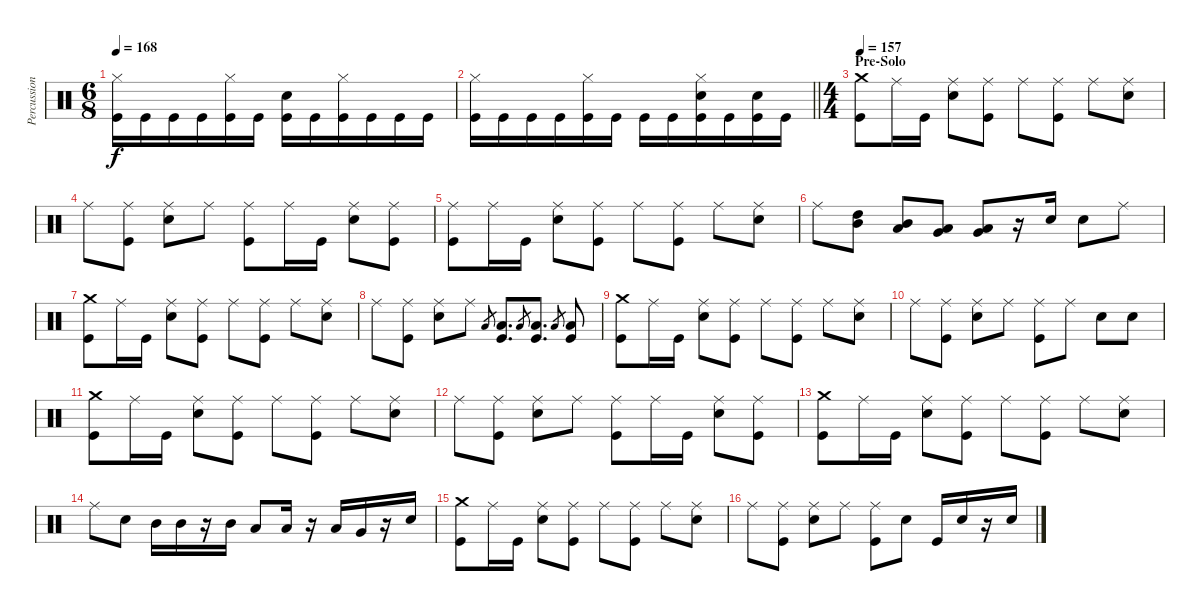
\track ("Percussion" "Percussion") {instrument percussion}
\staff {score}
\articulation defaults
\ts (6 8)
\tempo 168
\clef neutral
\ks c
("Hi-Hat (closed)" "Kick (hit)").16{dy f} "Kick (hit)".16 "Kick (hit)".16 "Kick (hit)".16 ("Hi-Hat (closed)" "Kick (hit)").16 "Kick (hit)".16 ("Snare (hit) 2" "Kick (hit)").16 "Kick (hit)".16 ("Hi-Hat (closed)" "Kick (hit)").16 "Kick (hit)".16 "Kick (hit)".16 "Kick (hit)".16 |
\barLineRight lightlight
("Hi-Hat (closed)" "Kick (hit)").16 "Kick (hit)".16 "Kick (hit)".16 "Kick (hit)".16 ("Hi-Hat (closed)" "Kick (hit)").16 "Kick (hit)".16 "Kick (hit)".16 "Kick (hit)".16 ("Hi-Hat (closed)" "Snare (hit) 2" "Kick (hit)").16 "Kick (hit)".16 ("Snare (hit) 2" "Kick (hit)").16 "Kick (hit)".16 |
\ts (4 4)
\section ("" "Pre-Solo")
\tempo 156
\tempo 157
("Crash medium (hit)" "Kick (hit)").8 "Ride (middle)".16 "Kick (hit)".16 ("Ride (middle)" "Snare (hit) 2").8 ("Ride (middle)" "Kick (hit)").8 "Ride (middle)".8 ("Ride (middle)" "Kick (hit)").8 "Ride (middle)".8 ("Ride (middle)" "Snare (hit) 2").8 |
"Ride (middle)".8 ("Ride (middle)" "Kick (hit)").8 ("Ride (middle)" "Snare (hit) 2").8 "Ride (middle)".8 ("Ride (middle)" "Kick (hit)").8 "Ride (middle)".16 "Kick (hit)".16 ("Ride (middle)" "Snare (hit) 2").8 ("Ride (middle)" "Kick (hit)").8 |
("Ride (middle)" "Kick (hit)").8 "Ride (middle)".16 "Kick (hit)".16 ("Ride (middle)" "Snare (hit) 2").8 ("Ride (middle)" "Kick (hit)").8 "Ride (middle)".8 ("Ride (middle)" "Kick (hit)").8 "Ride (middle)".8 ("Ride (middle)" "Snare (hit) 2").8 |
"Ride (middle)".8 ("High Tom (hit)" "Mid Tom (hit)").8 ("Mid Tom (hit)" "Low Tom (hit)").8 ("Low Tom (hit)" "Very Low Tom (hit)").8 ("Very Low Tom (hit)" "Low Floor Tom (hit)").8 r.16 "Snare (hit) 2".16 "Snare (hit) 2".8 "Ride (middle)".8 |
("Crash medium (hit)" "Kick (hit)").8 "Ride (middle)".16 "Kick (hit)".16 ("Ride (middle)" "Snare (hit) 2").8 ("Ride (middle)" "Kick (hit)").8 "Ride (middle)".8 ("Ride (middle)" "Kick (hit)").8 "Ride (middle)".8 ("Ride (middle)" "Snare (hit) 2").8 |
"Ride (middle)".8 ("Ride (middle)" "Kick (hit)").8 ("Ride (middle)" "Snare (hit) 2").8 "Ride (middle)".8 "Low Floor Tom (hit)".8{gr} ("Low Tom (hit)" "Kick (hit)").8{d} "Low Floor Tom (hit)".8{gr} ("Low Tom (hit)" "Kick (hit)").8{d} "Low Floor Tom (hit)".8{gr} ("Low Tom (hit)" "Kick (hit)").8 |
("Crash medium (hit)" "Kick (hit)").8 "Ride (middle)".16 "Kick (hit)".16 ("Ride (middle)" "Snare (hit) 2").8 ("Ride (middle)" "Kick (hit)").8 "Ride (middle)".8 ("Ride (middle)" "Kick (hit)").8 "Ride (middle)".8 ("Ride (middle)" "Snare (hit) 2").8 |
"Ride (middle)".8 ("Ride (middle)" "Kick (hit)").8 ("Ride (middle)" "Snare (hit) 2").8 "Ride (middle)".8 ("Ride (middle)" "Kick (hit)").8 "Ride (middle)".8 "Snare (hit) 2".8 "Snare (hit) 2".8 |
("Crash medium (hit)" "Kick (hit)").8 "Ride (middle)".16 "Kick (hit)".16 ("Ride (middle)" "Snare (hit) 2").8 ("Ride (middle)" "Kick (hit)").8 "Ride (middle)".8 ("Ride (middle)" "Kick (hit)").8 "Ride (middle)".8 ("Ride (middle)" "Snare (hit) 2").8 |
"Ride (middle)".8 ("Ride (middle)" "Kick (hit)").8 ("Ride (middle)" "Snare (hit) 2").8 "Ride (middle)".8 ("Ride (middle)" "Kick (hit)").8 "Ride (middle)".16 "Kick (hit)".16 ("Ride (middle)" "Snare (hit) 2").8 ("Ride (middle)" "Kick (hit)").8 |
("Crash medium (hit)" "Kick (hit)").8 "Ride (middle)".16 "Kick (hit)".16 ("Ride (middle)" "Snare (hit) 2").8 ("Ride (middle)" "Kick (hit)").8 "Ride (middle)".8 ("Ride (middle)" "Kick (hit)").8 "Ride (middle)".8 ("Ride (middle)" "Snare (hit) 2").8 |
"Ride (middle)".8 "Snare (hit) 2".8 "Mid Tom (hit)".16 "Mid Tom (hit)".16 r.16 "Mid Tom (hit)".16 "Low Tom (hit)".8 "Low Tom (hit)".16 r.16 "Low Tom (hit)".16 "Very Low Tom (hit)".16 r.16 "Snare (hit) 2".16 |
("Crash medium (hit)" "Kick (hit)").8 "Ride (middle)".16 "Kick (hit)".16 ("Ride (middle)" "Snare (hit) 2").8 ("Ride (middle)" "Kick (hit)").8 "Ride (middle)".8 ("Ride (middle)" "Kick (hit)").8 "Ride (middle)".8 ("Ride (middle)" "Snare (hit) 2").8 |
"Ride (middle)".8 ("Ride (middle)" "Kick (hit)").8 ("Ride (middle)" "Snare (hit) 2").8 "Ride (middle)".8 ("Ride (middle)" "Kick (hit)").8 "Snare (hit) 2".8 "Kick (hit)".16 "Snare (hit) 2".16 r.16 "Snare (hit) 2".16
